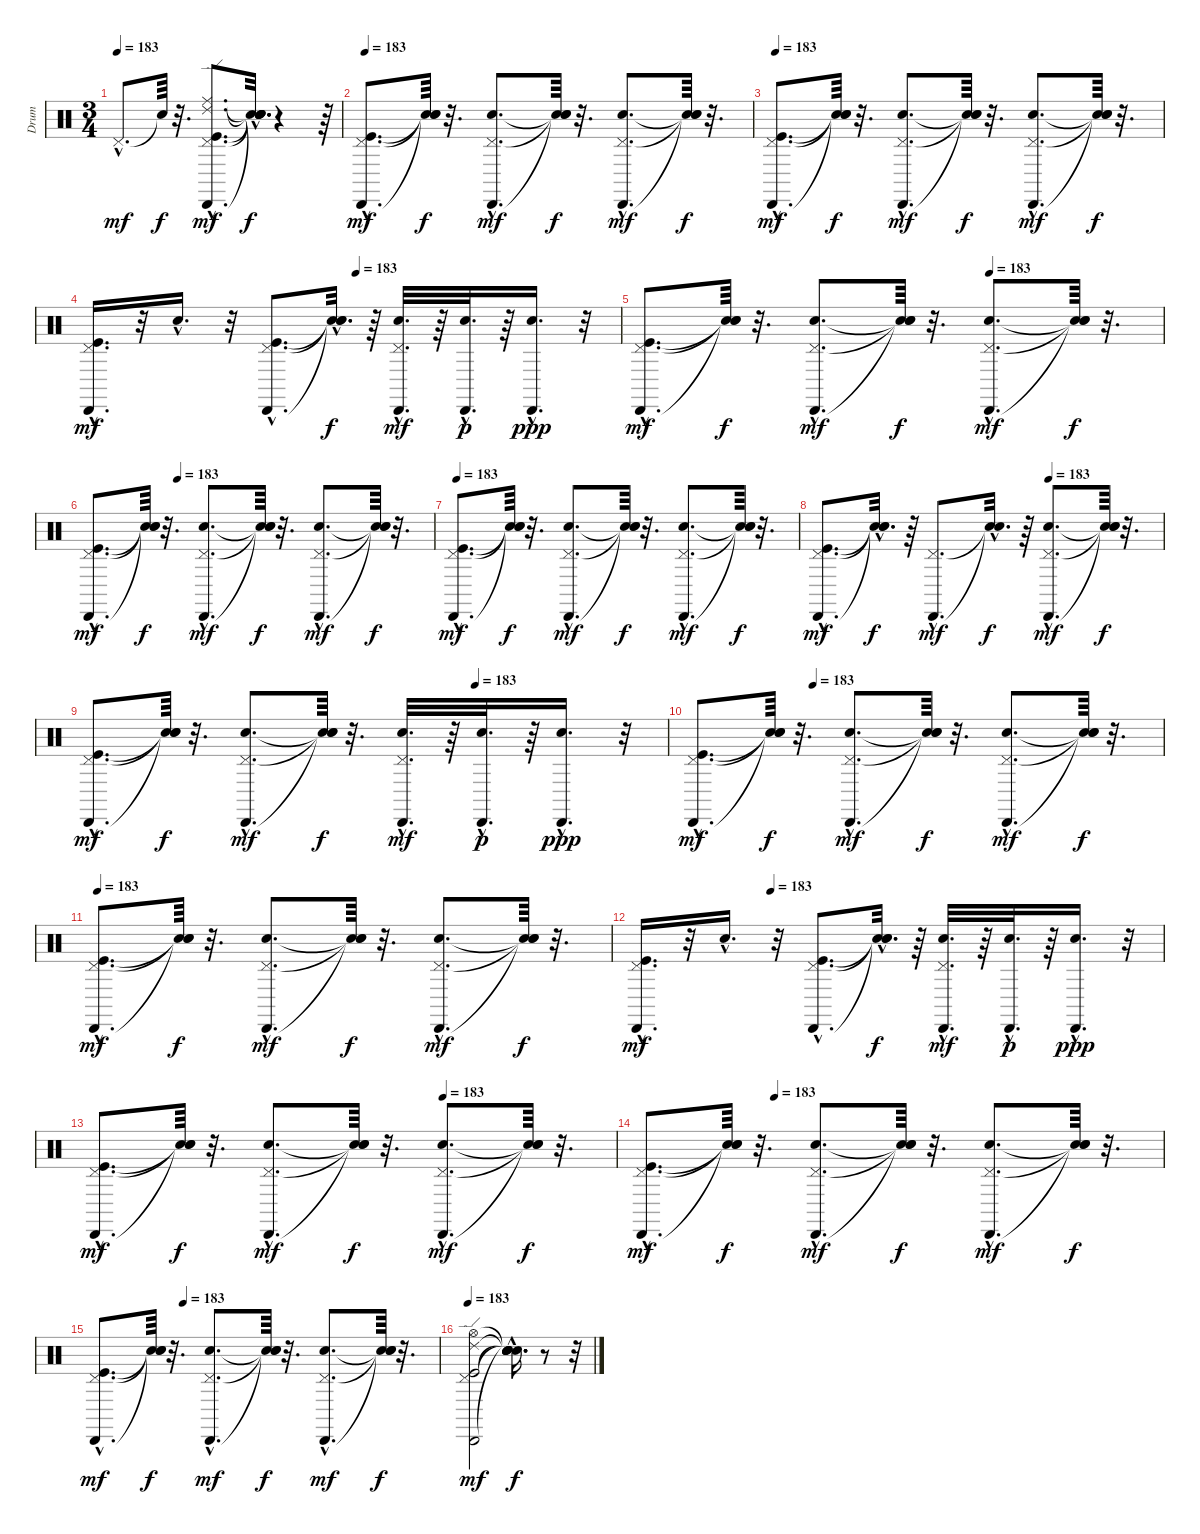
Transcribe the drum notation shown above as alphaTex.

\track ("Drum" "Drum") {instrument percussion}
\staff {score}
\articulation defaults
\ts (3 4)
\tempo 183
\clef neutral
\ks c "Pedal Hi-Hat (hit)"{hac}.8{d dy mf} "Snare (hit)"{t}.64{dy f}
r.32{d} ("Pedal Hi-Hat (hit)"{hac} "Ride (edge) 2"{hac} "Kick (hit)"{hac} "Ride (middle)"{hac} "Cabasa (hit)"{hac}).8{d dy mf} ("Snare (hit)"{hac t} "Snare (hit)"{hac t} "Snare (hit)"{hac t} "Snare (hit)"{hac t} "Snare (hit)"{hac t}).32{d dy f} r.4 r.64 |
\tempo 183
("Cabasa (hit)"{hac} "Pedal Hi-Hat (hit)"{hac} "Kick (hit)"{hac}).8{d dy mf} ("Snare (hit)"{t} "Snare (hit)"{t} "Snare (hit)"{t}).64{dy f} r.32{d} ("Pedal Hi-Hat (hit)"{hac} "Cabasa (hit)"{hac} "Electric Snare (hit)"{hac}).8{d dy mf} ("Snare (hit)"{t} "Snare (hit)"{t} "Snare (hit)"{t}).64{dy f} r.32{d} ("Pedal Hi-Hat (hit)"{hac} "Electric Snare (hit)"{hac} "Cabasa (hit)"{hac}).8{d dy mf} ("Snare (hit)"{t} "Snare (hit)"{t} "Snare (hit)"{t}).64{dy f} r.32{d} |
\tempo 183
("Kick (hit)"{hac} "Pedal Hi-Hat (hit)"{hac} "Cabasa (hit)"{hac}).8{d dy mf} ("Snare (hit)"{t} "Snare (hit)"{t} "Snare (hit)"{t}).64{dy f} r.32{d} ("Electric Snare (hit)"{hac} "Pedal Hi-Hat (hit)"{hac} "Cabasa (hit)"{hac}).8{d dy mf} ("Snare (hit)"{t} "Snare (hit)"{t} "Snare (hit)"{t}).64{dy f} r.32{d} ("Electric Snare (hit)"{hac} "Pedal Hi-Hat (hit)"{hac} "Cabasa (hit)"{hac}).8{d dy mf} ("Snare (hit)"{t} "Snare (hit)"{t} "Snare (hit)"{t}).64{dy f} r.32{d} |
\tempo (183 0.5)
("Cabasa (hit)"{hac} "Pedal Hi-Hat (hit)"{hac} "Kick (hit)"{hac}).16{d dy mf} r.32 "Electric Snare (hit)"{hac}.16{d} r.32 ("Pedal Hi-Hat (hit)"{hac} "Cabasa (hit)"{hac} "Kick (hit)"{hac}).8{d} ("Snare (hit)"{hac t} "Snare (hit)"{hac t} "Snare (hit)"{hac t}).32{d dy f} r.64 ("Pedal Hi-Hat (hit)"{hac} "Electric Snare (hit)"{hac} "Cabasa (hit)"{hac}).32{d dy mf} r.64 ("Electric Snare (hit)"{hac} "Cabasa (hit)"{hac}).32{d dy p} r.64 ("Electric Snare (hit)"{hac} "Cabasa (hit)"{hac}).16{d dy ppp} r.32 |
\tempo (183 0.6666666666666666)
("Kick (hit)"{hac} "Pedal Hi-Hat (hit)"{hac} "Cabasa (hit)"{hac}).8{d dy mf} ("Snare (hit)"{t} "Snare (hit)"{t} "Snare (hit)"{t}).64{dy f} r.32{d} ("Electric Snare (hit)"{hac} "Pedal Hi-Hat (hit)"{hac} "Cabasa (hit)"{hac}).8{d dy mf} ("Snare (hit)"{t} "Snare (hit)"{t} "Snare (hit)"{t}).64{dy f} r.32{d} ("Electric Snare (hit)"{hac} "Pedal Hi-Hat (hit)"{hac} "Cabasa (hit)"{hac}).8{d dy mf} ("Snare (hit)"{t} "Snare (hit)"{t} "Snare (hit)"{t}).64{dy f} r.32{d} |
\tempo (183 0.25)
("Cabasa (hit)"{hac} "Pedal Hi-Hat (hit)"{hac} "Kick (hit)"{hac}).8{d dy mf} ("Snare (hit)"{t} "Snare (hit)"{t} "Snare (hit)"{t}).64{dy f} r.32{d} ("Cabasa (hit)"{hac} "Pedal Hi-Hat (hit)"{hac} "Electric Snare (hit)"{hac}).8{d dy mf} ("Snare (hit)"{t} "Snare (hit)"{t} "Snare (hit)"{t}).64{dy f} r.32{d} ("Cabasa (hit)"{hac} "Pedal Hi-Hat (hit)"{hac} "Electric Snare (hit)"{hac}).8{d dy mf} ("Snare (hit)"{t} "Snare (hit)"{t} "Snare (hit)"{t}).64{dy f} r.32{d} |
\tempo 183
("Cabasa (hit)"{hac} "Pedal Hi-Hat (hit)"{hac} "Kick (hit)"{hac}).8{d dy mf} ("Snare (hit)"{t} "Snare (hit)"{t} "Snare (hit)"{t}).64{dy f} r.32{d} ("Cabasa (hit)"{hac} "Pedal Hi-Hat (hit)"{hac} "Electric Snare (hit)"{hac}).8{d dy mf} ("Snare (hit)"{t} "Snare (hit)"{t} "Snare (hit)"{t}).64{dy f} r.32{d} ("Cabasa (hit)"{hac} "Pedal Hi-Hat (hit)"{hac} "Electric Snare (hit)"{hac}).8{d dy mf} ("Snare (hit)"{t} "Snare (hit)"{t} "Snare (hit)"{t}).64{dy f} r.32{d} |
\tempo (183 0.6666666666666666)
("Cabasa (hit)"{hac} "Kick (hit)"{hac} "Pedal Hi-Hat (hit)"{hac}).8{d dy mf} ("Snare (hit)"{hac t} "Snare (hit)"{hac t} "Snare (hit)"{hac t}).32{d dy f} r.64 ("Pedal Hi-Hat (hit)"{hac} "Cabasa (hit)"{hac}).8{d dy mf} ("Snare (hit)"{hac t} "Snare (hit)"{hac t}).32{d dy f} r.64 ("Pedal Hi-Hat (hit)"{hac} "Electric Snare (hit)"{hac} "Cabasa (hit)"{hac}).8{d dy mf} ("Snare (hit)"{t} "Snare (hit)"{t} "Snare (hit)"{t}).64{dy f} r.32{d} |
\tempo (183 0.6666666666666666)
("Cabasa (hit)"{hac} "Pedal Hi-Hat (hit)"{hac} "Kick (hit)"{hac}).8{d dy mf} ("Snare (hit)"{t} "Snare (hit)"{t} "Snare (hit)"{t}).64{dy f} r.32{d} ("Cabasa (hit)"{hac} "Pedal Hi-Hat (hit)"{hac} "Electric Snare (hit)"{hac}).8{d dy mf} ("Snare (hit)"{t} "Snare (hit)"{t} "Snare (hit)"{t}).64{dy f} r.32{d} ("Pedal Hi-Hat (hit)"{hac} "Cabasa (hit)"{hac} "Electric Snare (hit)"{hac}).32{d dy mf} r.64 ("Cabasa (hit)"{hac} "Electric Snare (hit)"{hac}).32{d dy p} r.64 ("Cabasa (hit)"{hac} "Electric Snare (hit)"{hac}).16{d dy ppp} r.32 |
\tempo (183 0.25)
("Kick (hit)"{hac} "Cabasa (hit)"{hac} "Pedal Hi-Hat (hit)"{hac}).8{d dy mf} ("Snare (hit)"{t} "Snare (hit)"{t} "Snare (hit)"{t}).64{dy f} r.32{d} ("Electric Snare (hit)"{hac} "Cabasa (hit)"{hac} "Pedal Hi-Hat (hit)"{hac}).8{d dy mf} ("Snare (hit)"{t} "Snare (hit)"{t} "Snare (hit)"{t}).64{dy f} r.32{d} ("Electric Snare (hit)"{hac} "Cabasa (hit)"{hac} "Pedal Hi-Hat (hit)"{hac}).8{d dy mf} ("Snare (hit)"{t} "Snare (hit)"{t} "Snare (hit)"{t}).64{dy f} r.32{d} |
\tempo 183
("Cabasa (hit)"{hac} "Pedal Hi-Hat (hit)"{hac} "Kick (hit)"{hac}).8{d dy mf} ("Snare (hit)"{t} "Snare (hit)"{t} "Snare (hit)"{t}).64{dy f} r.32{d} ("Cabasa (hit)"{hac} "Pedal Hi-Hat (hit)"{hac} "Electric Snare (hit)"{hac}).8{d dy mf} ("Snare (hit)"{t} "Snare (hit)"{t} "Snare (hit)"{t}).64{dy f} r.32{d} ("Cabasa (hit)"{hac} "Pedal Hi-Hat (hit)"{hac} "Electric Snare (hit)"{hac}).8{d dy mf} ("Snare (hit)"{t} "Snare (hit)"{t} "Snare (hit)"{t}).64{dy f} r.32{d} |
\tempo (183 0.25)
("Cabasa (hit)"{hac} "Pedal Hi-Hat (hit)"{hac} "Kick (hit)"{hac}).16{d dy mf} r.32 "Electric Snare (hit)"{hac}.16{d} r.32 ("Kick (hit)"{hac} "Cabasa (hit)"{hac} "Pedal Hi-Hat (hit)"{hac}).8{d} ("Snare (hit)"{hac t} "Snare (hit)"{hac t} "Snare (hit)"{hac t}).32{d dy f} r.64 ("Pedal Hi-Hat (hit)"{hac} "Cabasa (hit)"{hac} "Electric Snare (hit)"{hac}).32{d dy mf} r.64 ("Cabasa (hit)"{hac} "Electric Snare (hit)"{hac}).32{d dy p} r.64 ("Cabasa (hit)"{hac} "Electric Snare (hit)"{hac}).16{d dy ppp} r.32 |
\tempo (183 0.6666666666666666)
("Cabasa (hit)"{hac} "Kick (hit)"{hac} "Pedal Hi-Hat (hit)"{hac}).8{d dy mf} ("Snare (hit)"{t} "Snare (hit)"{t} "Snare (hit)"{t}).64{dy f} r.32{d} ("Pedal Hi-Hat (hit)"{hac} "Cabasa (hit)"{hac} "Electric Snare (hit)"{hac}).8{d dy mf} ("Snare (hit)"{t} "Snare (hit)"{t} "Snare (hit)"{t}).64{dy f} r.32{d} ("Cabasa (hit)"{hac} "Pedal Hi-Hat (hit)"{hac} "Electric Snare (hit)"{hac}).8{d dy mf} ("Snare (hit)"{t} "Snare (hit)"{t} "Snare (hit)"{t}).64{dy f} r.32{d} |
\tempo (183 0.25)
("Cabasa (hit)"{hac} "Pedal Hi-Hat (hit)"{hac} "Kick (hit)"{hac}).8{d dy mf} ("Snare (hit)"{t} "Snare (hit)"{t} "Snare (hit)"{t}).64{dy f} r.32{d} ("Electric Snare (hit)"{hac} "Cabasa (hit)"{hac} "Pedal Hi-Hat (hit)"{hac}).8{d dy mf} ("Snare (hit)"{t} "Snare (hit)"{t} "Snare (hit)"{t}).64{dy f} r.32{d} ("Electric Snare (hit)"{hac} "Cabasa (hit)"{hac} "Pedal Hi-Hat (hit)"{hac}).8{d dy mf} ("Snare (hit)"{t} "Snare (hit)"{t} "Snare (hit)"{t}).64{dy f} r.32{d} |
\tempo (183 0.25)
("Pedal Hi-Hat (hit)"{hac} "Cabasa (hit)"{hac} "Kick (hit)"{hac}).8{d dy mf} ("Snare (hit)"{t} "Snare (hit)"{t} "Snare (hit)"{t}).64{dy f} r.32{d} ("Pedal Hi-Hat (hit)"{hac} "Cabasa (hit)"{hac} "Snare (hit) 2"{hac}).8{d dy mf} ("Snare (hit)"{t} "Snare (hit)"{t} "Snare (hit)"{t}).64{dy f} r.32{d} ("Pedal Hi-Hat (hit)"{hac} "Cabasa (hit)"{hac} "Electric Snare (hit)"{hac}).8{d dy mf} ("Snare (hit)"{t} "Snare (hit)"{t} "Snare (hit)"{t}).64{dy f} r.32{d} |
\tempo 183
("Kick (hit)" "Pedal Hi-Hat (hit)" "Cabasa (hit)" "Hi-Hat (open)" "Ride (edge) 2").2{dy mf} ("Snare (hit)"{hac t} "Snare (hit)"{hac t} "Snare (hit)"{hac t} "Snare (hit)"{hac t} "Snare (hit)"{hac t}).16{d dy f} r.8 r.32
